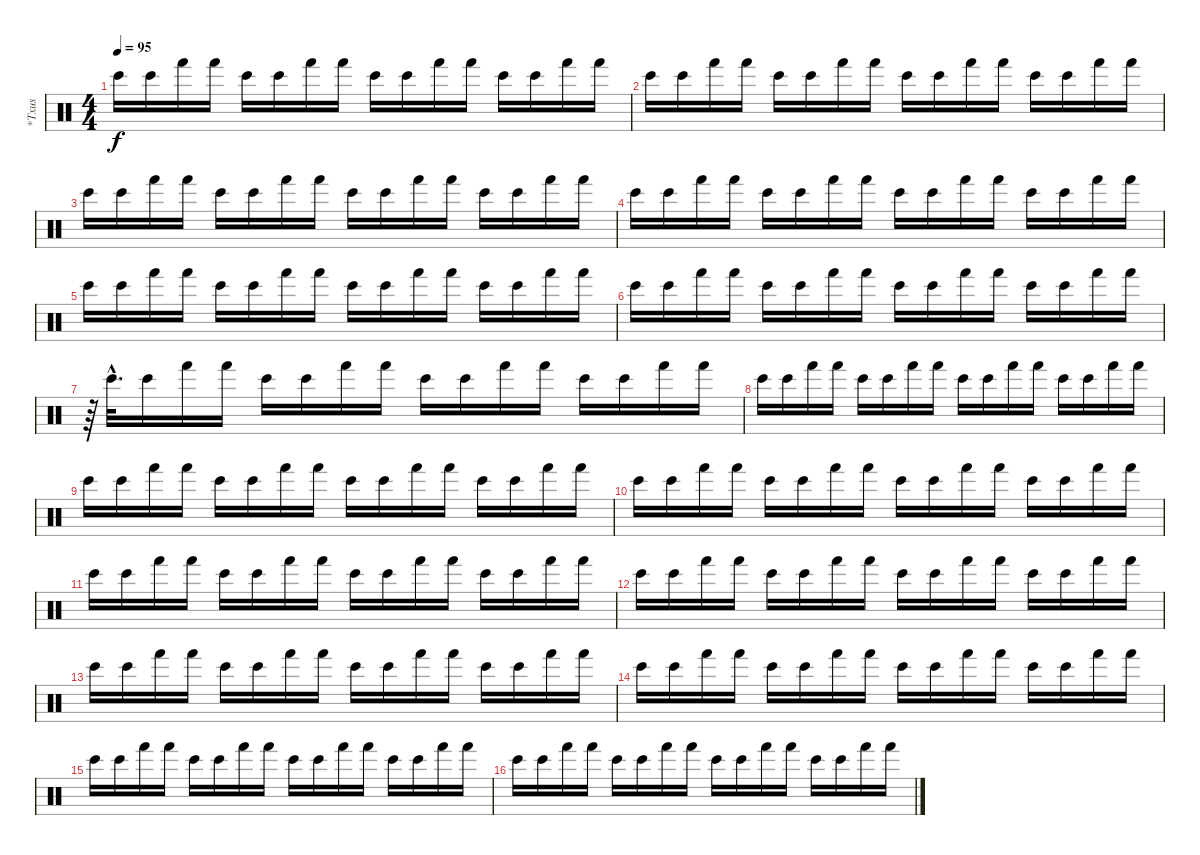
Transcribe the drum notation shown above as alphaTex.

\track ("*Txus" "*Txus") {instrument percussion}
\staff {score}
\articulation defaults
\ts (4 4)
\tempo 95
\clef neutral
\ks c "Bongo High (hit)".16{dy f} "Bongo High (hit)".16 "Hand (hit)".16 "Hand (hit)".16 "Bongo High (hit)".16 "Bongo High (hit)".16 "Hand (hit)".16 "Hand (hit)".16 "Bongo High (hit)".16 "Bongo High (hit)".16 "Hand (hit)".16 "Hand (hit)".16 "Bongo High (hit)".16 "Bongo High (hit)".16 "Hand (hit)".16 "Hand (hit)".16
|
"Bongo High (hit)".16 "Bongo High (hit)".16 "Hand (hit)".16 "Hand (hit)".16 "Bongo High (hit)".16 "Bongo High (hit)".16 "Hand (hit)".16 "Hand (hit)".16 "Bongo High (hit)".16 "Bongo High (hit)".16 "Hand (hit)".16 "Hand (hit)".16 "Bongo High (hit)".16 "Bongo High (hit)".16 "Hand (hit)".16 "Hand (hit)".16 |
"Bongo High (hit)".16 "Bongo High (hit)".16 "Hand (hit)".16 "Hand (hit)".16 "Bongo High (hit)".16 "Bongo High (hit)".16 "Hand (hit)".16 "Hand (hit)".16 "Bongo High (hit)".16 "Bongo High (hit)".16 "Hand (hit)".16 "Hand (hit)".16 "Bongo High (hit)".16 "Bongo High (hit)".16 "Hand (hit)".16 "Hand (hit)".16 |
"Bongo High (hit)".16 "Bongo High (hit)".16 "Hand (hit)".16 "Hand (hit)".16 "Bongo High (hit)".16 "Bongo High (hit)".16 "Hand (hit)".16 "Hand (hit)".16 "Bongo High (hit)".16 "Bongo High (hit)".16 "Hand (hit)".16 "Hand (hit)".16 "Bongo High (hit)".16 "Bongo High (hit)".16 "Hand (hit)".16 "Hand (hit)".16 |
"Bongo High (hit)".16 "Bongo High (hit)".16 "Hand (hit)".16 "Hand (hit)".16 "Bongo High (hit)".16 "Bongo High (hit)".16 "Hand (hit)".16 "Hand (hit)".16 "Bongo High (hit)".16 "Bongo High (hit)".16 "Hand (hit)".16 "Hand (hit)".16 "Bongo High (hit)".16 "Bongo High (hit)".16 "Hand (hit)".16 "Hand (hit)".16 |
"Bongo High (hit)".16{volume 9} "Bongo High (hit)".16 "Hand (hit)".16 "Hand (hit)".16 "Bongo High (hit)".16 "Bongo High (hit)".16 "Hand (hit)".16 "Hand (hit)".16 "Bongo High (hit)".16 "Bongo High (hit)".16 "Hand (hit)".16 "Hand (hit)".16 "Bongo High (hit)".16 "Bongo High (hit)".16 "Hand (hit)".16 "Hand (hit)".16 |
r.64 "Bongo High (hit)"{hac}.32{d} "Bongo High (hit)".16 "Hand (hit)".16 "Hand (hit)".16 "Bongo High (hit)".16 "Bongo High (hit)".16 "Hand (hit)".16 "Hand (hit)".16 "Bongo High (hit)".16 "Bongo High (hit)".16 "Hand (hit)".16 "Hand (hit)".16 "Bongo High (hit)".16 "Bongo High (hit)".16 "Hand (hit)".16 "Hand (hit)".16 |
"Bongo High (hit)".16 "Bongo High (hit)".16 "Hand (hit)".16 "Hand (hit)".16 "Bongo High (hit)".16 "Bongo High (hit)".16 "Hand (hit)".16 "Hand (hit)".16 "Bongo High (hit)".16 "Bongo High (hit)".16 "Hand (hit)".16 "Hand (hit)".16 "Bongo High (hit)".16 "Bongo High (hit)".16 "Hand (hit)".16 "Hand (hit)".16 |
"Bongo High (hit)".16 "Bongo High (hit)".16 "Hand (hit)".16 "Hand (hit)".16 "Bongo High (hit)".16 "Bongo High (hit)".16 "Hand (hit)".16 "Hand (hit)".16 "Bongo High (hit)".16 "Bongo High (hit)".16 "Hand (hit)".16 "Hand (hit)".16 "Bongo High (hit)".16 "Bongo High (hit)".16 "Hand (hit)".16 "Hand (hit)".16 |
"Bongo High (hit)".16 "Bongo High (hit)".16 "Hand (hit)".16 "Hand (hit)".16 "Bongo High (hit)".16 "Bongo High (hit)".16 "Hand (hit)".16 "Hand (hit)".16 "Bongo High (hit)".16 "Bongo High (hit)".16 "Hand (hit)".16 "Hand (hit)".16 "Bongo High (hit)".16 "Bongo High (hit)".16 "Hand (hit)".16 "Hand (hit)".16 |
"Bongo High (hit)".16 "Bongo High (hit)".16 "Hand (hit)".16 "Hand (hit)".16 "Bongo High (hit)".16 "Bongo High (hit)".16 "Hand (hit)".16 "Hand (hit)".16 "Bongo High (hit)".16 "Bongo High (hit)".16 "Hand (hit)".16 "Hand (hit)".16 "Bongo High (hit)".16 "Bongo High (hit)".16 "Hand (hit)".16 "Hand (hit)".16 |
"Bongo High (hit)".16 "Bongo High (hit)".16 "Hand (hit)".16 "Hand (hit)".16 "Bongo High (hit)".16 "Bongo High (hit)".16 "Hand (hit)".16 "Hand (hit)".16 "Bongo High (hit)".16 "Bongo High (hit)".16 "Hand (hit)".16 "Hand (hit)".16 "Bongo High (hit)".16 "Bongo High (hit)".16 "Hand (hit)".16 "Hand (hit)".16 |
"Bongo High (hit)".16 "Bongo High (hit)".16 "Hand (hit)".16 "Hand (hit)".16 "Bongo High (hit)".16 "Bongo High (hit)".16 "Hand (hit)".16 "Hand (hit)".16 "Bongo High (hit)".16 "Bongo High (hit)".16 "Hand (hit)".16 "Hand (hit)".16 "Bongo High (hit)".16 "Bongo High (hit)".16 "Hand (hit)".16 "Hand (hit)".16 |
"Bongo High (hit)".16 "Bongo High (hit)".16 "Hand (hit)".16 "Hand (hit)".16 "Bongo High (hit)".16 "Bongo High (hit)".16 "Hand (hit)".16 "Hand (hit)".16 "Bongo High (hit)".16 "Bongo High (hit)".16 "Hand (hit)".16 "Hand (hit)".16 "Bongo High (hit)".16 "Bongo High (hit)".16 "Hand (hit)".16 "Hand (hit)".16 |
"Bongo High (hit)".16 "Bongo High (hit)".16 "Hand (hit)".16 "Hand (hit)".16 "Bongo High (hit)".16 "Bongo High (hit)".16 "Hand (hit)".16 "Hand (hit)".16 "Bongo High (hit)".16 "Bongo High (hit)".16 "Hand (hit)".16 "Hand (hit)".16 "Bongo High (hit)".16 "Bongo High (hit)".16 "Hand (hit)".16 "Hand (hit)".16 |
"Bongo High (hit)".16 "Bongo High (hit)".16 "Hand (hit)".16 "Hand (hit)".16 "Bongo High (hit)".16 "Bongo High (hit)".16 "Hand (hit)".16 "Hand (hit)".16 "Bongo High (hit)".16 "Bongo High (hit)".16 "Hand (hit)".16 "Hand (hit)".16 "Bongo High (hit)".16 "Bongo High (hit)".16 "Hand (hit)".16 "Hand (hit)".16
